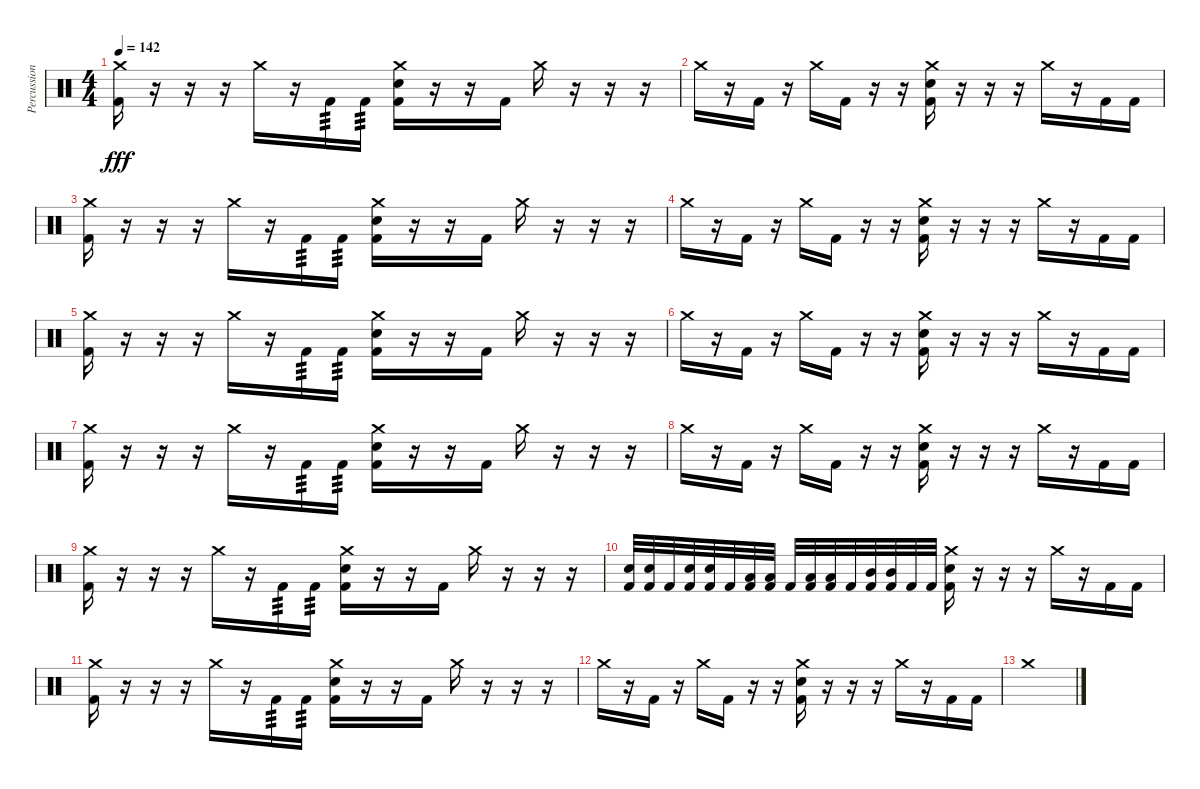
\track ("Percussion" "Percussion") {instrument percussion}
\staff {score}
\articulation defaults
\ts (4 4)
\tempo 142
\clef neutral
\ks c
("Crash medium (hit)" "Kick (hit) 2").16{dy fff} r.16 r.16 r.16 "Crash medium (hit)".16 r.16 "Kick (hit) 2".16{tp 3} "Kick (hit) 2".16{tp 3} ("Crash medium (hit)" "Electric Snare (hit)" "Kick (hit) 2").16 r.16 r.16 "Kick (hit) 2".16 "Crash medium (hit)".16 r.16 r.16 r.16 |
"Crash medium (hit)".16 r.16 "Kick (hit) 2".16 r.16 "Crash medium (hit)".16 "Kick (hit) 2".16 r.16 r.16 ("Crash medium (hit)" "Electric Snare (hit)" "Kick (hit) 2").16 r.16 r.16 r.16 "Crash medium (hit)".16 r.16 "Kick (hit) 2".16 "Kick (hit) 2".16 |
("Crash medium (hit)" "Kick (hit) 2").16 r.16 r.16 r.16 "Crash medium (hit)".16 r.16 "Kick (hit) 2".16{tp 3} "Kick (hit) 2".16{tp 3} ("Crash medium (hit)" "Electric Snare (hit)" "Kick (hit) 2").16 r.16 r.16 "Kick (hit) 2".16 "Crash medium (hit)".16 r.16 r.16 r.16 |
"Crash medium (hit)".16 r.16 "Kick (hit) 2".16 r.16 "Crash medium (hit)".16 "Kick (hit) 2".16 r.16 r.16 ("Crash medium (hit)" "Electric Snare (hit)" "Kick (hit) 2").16 r.16 r.16 r.16 "Crash medium (hit)".16 r.16 "Kick (hit) 2".16 "Kick (hit) 2".16 |
("Crash medium (hit)" "Kick (hit) 2").16 r.16 r.16 r.16 "Crash medium (hit)".16 r.16 "Kick (hit) 2".16{tp 3} "Kick (hit) 2".16{tp 3} ("Crash medium (hit)" "Electric Snare (hit)" "Kick (hit) 2").16 r.16 r.16 "Kick (hit) 2".16 "Crash medium (hit)".16 r.16 r.16 r.16 |
"Crash medium (hit)".16 r.16 "Kick (hit) 2".16 r.16 "Crash medium (hit)".16 "Kick (hit) 2".16 r.16 r.16 ("Crash medium (hit)" "Electric Snare (hit)" "Kick (hit) 2").16 r.16 r.16 r.16 "Crash medium (hit)".16 r.16 "Kick (hit) 2".16 "Kick (hit) 2".16 |
("Crash medium (hit)" "Kick (hit) 2").16 r.16 r.16 r.16 "Crash medium (hit)".16 r.16 "Kick (hit) 2".16{tp 3} "Kick (hit) 2".16{tp 3} ("Crash medium (hit)" "Electric Snare (hit)" "Kick (hit) 2").16 r.16 r.16 "Kick (hit) 2".16 "Crash medium (hit)".16 r.16 r.16 r.16 |
"Crash medium (hit)".16 r.16 "Kick (hit) 2".16 r.16 "Crash medium (hit)".16 "Kick (hit) 2".16 r.16 r.16 ("Crash medium (hit)" "Electric Snare (hit)" "Kick (hit) 2").16 r.16 r.16 r.16 "Crash medium (hit)".16 r.16 "Kick (hit) 2".16 "Kick (hit) 2".16 |
("Crash medium (hit)" "Kick (hit) 2").16 r.16 r.16 r.16 "Crash medium (hit)".16 r.16 "Kick (hit) 2".16{tp 3} "Kick (hit) 2".16{tp 3} ("Crash medium (hit)" "Electric Snare (hit)" "Kick (hit) 2").16 r.16 r.16 "Kick (hit) 2".16 "Crash medium (hit)".16 r.16 r.16 r.16 |
("Electric Snare (hit)" "Kick (hit) 2").32 ("Electric Snare (hit)" "Kick (hit) 2").32 "Kick (hit) 2".32 ("Snare (hit) 2" "Kick (hit) 2").32 ("Snare (hit) 2" "Kick (hit) 2").32 "Kick (hit) 2".32 ("Low Floor Tom (hit)" "Kick (hit) 2").32 ("Low Floor Tom (hit)" "Kick (hit) 2").32 "Kick (hit) 2".32 ("Low Tom (hit)" "Kick (hit) 2").32 ("Low Tom (hit)" "Kick (hit) 2").32 "Kick (hit) 2".32 ("Mid Tom (hit)" "Kick (hit) 2").32 ("Mid Tom (hit)" "Kick (hit) 2").32 "Kick (hit) 2".32 "Kick (hit) 2".32 ("Crash medium (hit)" "Electric Snare (hit)" "Kick (hit) 2").16 r.16 r.16 r.16 "Crash medium (hit)".16 r.16 "Kick (hit) 2".16 "Kick (hit) 2".16 |
("Crash medium (hit)" "Kick (hit) 2").16 r.16 r.16 r.16 "Crash medium (hit)".16 r.16 "Kick (hit) 2".16{tp 3} "Kick (hit) 2".16{tp 3} ("Crash medium (hit)" "Electric Snare (hit)" "Kick (hit) 2").16 r.16 r.16 "Kick (hit) 2".16 "Crash medium (hit)".16 r.16 r.16 r.16 |
"Crash medium (hit)".16 r.16 "Kick (hit) 2".16 r.16 "Crash medium (hit)".16 "Kick (hit) 2".16 r.16 r.16 ("Crash medium (hit)" "Electric Snare (hit)" "Kick (hit) 2").16 r.16 r.16 r.16 "Crash medium (hit)".16 r.16 "Kick (hit) 2".16 "Kick (hit) 2".16 |
"Crash medium (hit)".1
